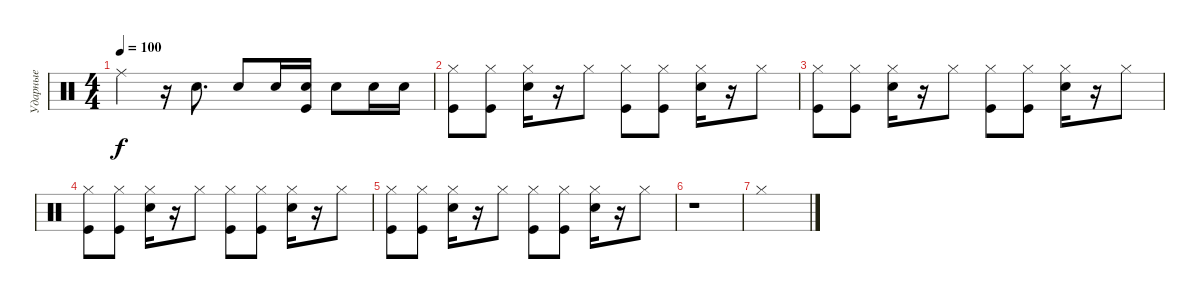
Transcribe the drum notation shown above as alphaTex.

\track ("Ударные" "Ударные") {instrument percussion}
\staff {score}
\articulation defaults
\ts (4 4)
\tempo 100
\clef neutral
\ks c "Ride (middle)".4{dy f}
r.16 "Snare (hit) 2".8{d} "Snare (hit) 2".8 "Snare (hit) 2".16 ("Snare (hit) 2" "Kick (hit)").16 "Snare (hit) 2".8 "Snare (hit) 2".16 "Snare (hit) 2".16 |
("Hi-Hat (closed)" "Kick (hit)").8 ("Kick (hit)" "Hi-Hat (closed)").8 ("Hi-Hat (closed)" "Snare (hit) 2").16 r.16 "Hi-Hat (closed)".8 ("Hi-Hat (closed)" "Kick (hit)").8 ("Kick (hit)" "Hi-Hat (closed)").8 ("Hi-Hat (closed)" "Snare (hit) 2").16 r.16 "Hi-Hat (closed)".8 |
("Hi-Hat (closed)" "Kick (hit)").8 ("Kick (hit)" "Hi-Hat (closed)").8 ("Hi-Hat (closed)" "Snare (hit) 2").16 r.16 "Hi-Hat (closed)".8 ("Hi-Hat (closed)" "Kick (hit)").8 ("Kick (hit)" "Hi-Hat (closed)").8 ("Hi-Hat (closed)" "Snare (hit) 2").16 r.16 "Hi-Hat (closed)".8 |
("Hi-Hat (closed)" "Kick (hit)").8 ("Kick (hit)" "Hi-Hat (closed)").8 ("Hi-Hat (closed)" "Snare (hit) 2").16 r.16 "Hi-Hat (closed)".8 ("Hi-Hat (closed)" "Kick (hit)").8 ("Kick (hit)" "Hi-Hat (closed)").8 ("Hi-Hat (closed)" "Snare (hit) 2").16 r.16 "Hi-Hat (closed)".8 |
("Hi-Hat (closed)" "Kick (hit)").8 ("Kick (hit)" "Hi-Hat (closed)").8 ("Hi-Hat (closed)" "Snare (hit) 2").16 r.16 "Hi-Hat (closed)".8 ("Hi-Hat (closed)" "Kick (hit)").8 ("Kick (hit)" "Hi-Hat (closed)").8 ("Hi-Hat (closed)" "Snare (hit) 2").16 r.16 "Hi-Hat (closed)".8 |
r.1 |
"Hi-Hat (closed)".1
